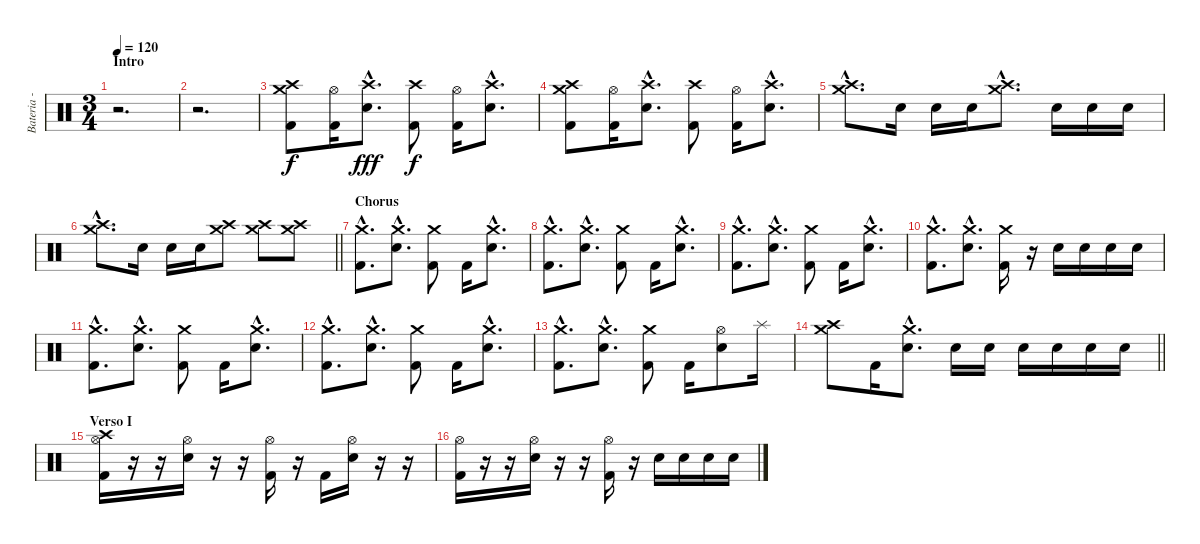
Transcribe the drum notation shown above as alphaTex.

\track ("Bateria - Larzon" "Bateria - ") {instrument percussion}
\staff {score}
\articulation defaults
\ts (3 4)
\section ("" "Intro")
\tempo 120
\clef neutral
\ks c
r.2{d dy f} |
r.2{d} |
("Kick (hit) 2" "Crash medium (hit)" "Crash high (hit)").8 ("Kick (hit) 2" "Hi-Hat (open)").16 ("Electric Snare (hit)"{hac} "Crash high (hit)"{hac}).8{d dy fff} ("Kick (hit) 2" "Crash high (hit)").8{dy f} ("Kick (hit) 2" "Hi-Hat (open)").16 ("Electric Snare (hit)"{hac} "Crash high (hit)"{hac}).8{d} |
("Kick (hit) 2" "Crash medium (hit)" "Crash high (hit)").8 ("Kick (hit) 2" "Hi-Hat (open)").16 ("Electric Snare (hit)"{hac} "Crash high (hit)"{hac}).8{d} ("Kick (hit) 2" "Crash high (hit)").8 ("Kick (hit) 2" "Hi-Hat (open)").16 ("Electric Snare (hit)"{hac} "Crash high (hit)"{hac}).8{d} |
("Crash medium (hit)"{hac} "Crash high (hit)"{hac}).8{d} "Electric Snare (hit)".16 "Electric Snare (hit)".16 "Electric Snare (hit)".16 ("Crash medium (hit)"{hac} "Crash high (hit)"{hac}).8{d} "Electric Snare (hit)".16 "Electric Snare (hit)".16 "Electric Snare (hit)".16 |
\barLineRight lightlight
("Crash medium (hit)"{hac} "Crash high (hit)"{hac}).8{d} "Electric Snare (hit)".16 "Electric Snare (hit)".16 "Electric Snare (hit)".16 ("Crash medium (hit)" "Crash high (hit)").8 ("Crash medium (hit)" "Crash high (hit)").8 ("Crash medium (hit)" "Crash high (hit)").8 |
\section ("" "Chorus")
("Kick (hit) 2"{hac} "Crash medium (hit)"{hac}).8{d} ("Electric Snare (hit)"{hac} "Crash medium (hit)"{hac}).8{d} ("Kick (hit) 2" "Crash medium (hit)").8 "Kick (hit) 2".16 ("Electric Snare (hit)"{hac} "Crash medium (hit)"{hac}).8{d} |
("Kick (hit) 2"{hac} "Crash medium (hit)"{hac}).8{d} ("Electric Snare (hit)"{hac} "Crash medium (hit)"{hac}).8{d} ("Kick (hit) 2" "Crash medium (hit)").8 "Kick (hit) 2".16 ("Electric Snare (hit)"{hac} "Crash medium (hit)"{hac}).8{d} |
("Kick (hit) 2"{hac} "Crash medium (hit)"{hac}).8{d} ("Electric Snare (hit)"{hac} "Crash medium (hit)"{hac}).8{d} ("Kick (hit) 2" "Crash medium (hit)").8 "Kick (hit) 2".16 ("Electric Snare (hit)"{hac} "Crash medium (hit)"{hac}).8{d} |
("Kick (hit) 2"{hac} "Crash medium (hit)"{hac}).8{d} ("Electric Snare (hit)"{hac} "Crash medium (hit)"{hac}).8{d} ("Kick (hit) 2" "Crash medium (hit)").16 r.16 "Electric Snare (hit)".16 "Electric Snare (hit)".16 "Electric Snare (hit)".16 "Electric Snare (hit)".16 |
("Kick (hit) 2"{hac} "Crash medium (hit)"{hac}).8{d} ("Electric Snare (hit)"{hac} "Crash medium (hit)"{hac}).8{d} ("Kick (hit) 2" "Crash medium (hit)").8 "Kick (hit) 2".16 ("Electric Snare (hit)"{hac} "Crash medium (hit)"{hac}).8{d} |
("Kick (hit) 2"{hac} "Crash medium (hit)"{hac}).8{d} ("Electric Snare (hit)"{hac} "Crash medium (hit)"{hac}).8{d} ("Kick (hit) 2" "Crash medium (hit)").8 "Kick (hit) 2".16 ("Electric Snare (hit)"{hac} "Crash medium (hit)"{hac}).8{d} |
("Kick (hit) 2"{hac} "Crash medium (hit)"{hac}).8{d} ("Electric Snare (hit)"{hac} "Crash medium (hit)"{hac}).8{d} ("Kick (hit) 2" "Crash medium (hit)").8 "Kick (hit) 2".16 ("Electric Snare (hit)" "Hi-Hat (open)").8 "Splash (hit)".16 |
\barLineRight lightlight
("Crash medium (hit)" "Crash high (hit)").8 "Kick (hit) 2".16 ("Electric Snare (hit)"{hac} "Crash medium (hit)"{hac}).8{d} "Electric Snare (hit)".16 "Electric Snare (hit)".16 "Electric Snare (hit)".16 "Electric Snare (hit)".16 "Electric Snare (hit)".16 "Electric Snare (hit)".16 |
\section ("" "Verso I")
("Kick (hit) 2" "Crash high (hit)" "Hi-Hat (open)").16 r.16 r.16 ("Electric Snare (hit)" "Hi-Hat (open)").16 r.16 r.16 ("Kick (hit) 2" "Hi-Hat (open)").16 r.16 "Kick (hit) 2".16 ("Electric Snare (hit)" "Hi-Hat (open)").16 r.16 r.16 |
("Kick (hit) 2" "Hi-Hat (open)").16 r.16 r.16 ("Electric Snare (hit)" "Hi-Hat (open)").16 r.16 r.16 ("Kick (hit) 2" "Hi-Hat (open)").16 r.16 "Electric Snare (hit)".16 "Electric Snare (hit)".16 "Electric Snare (hit)".16 "Electric Snare (hit)".16
